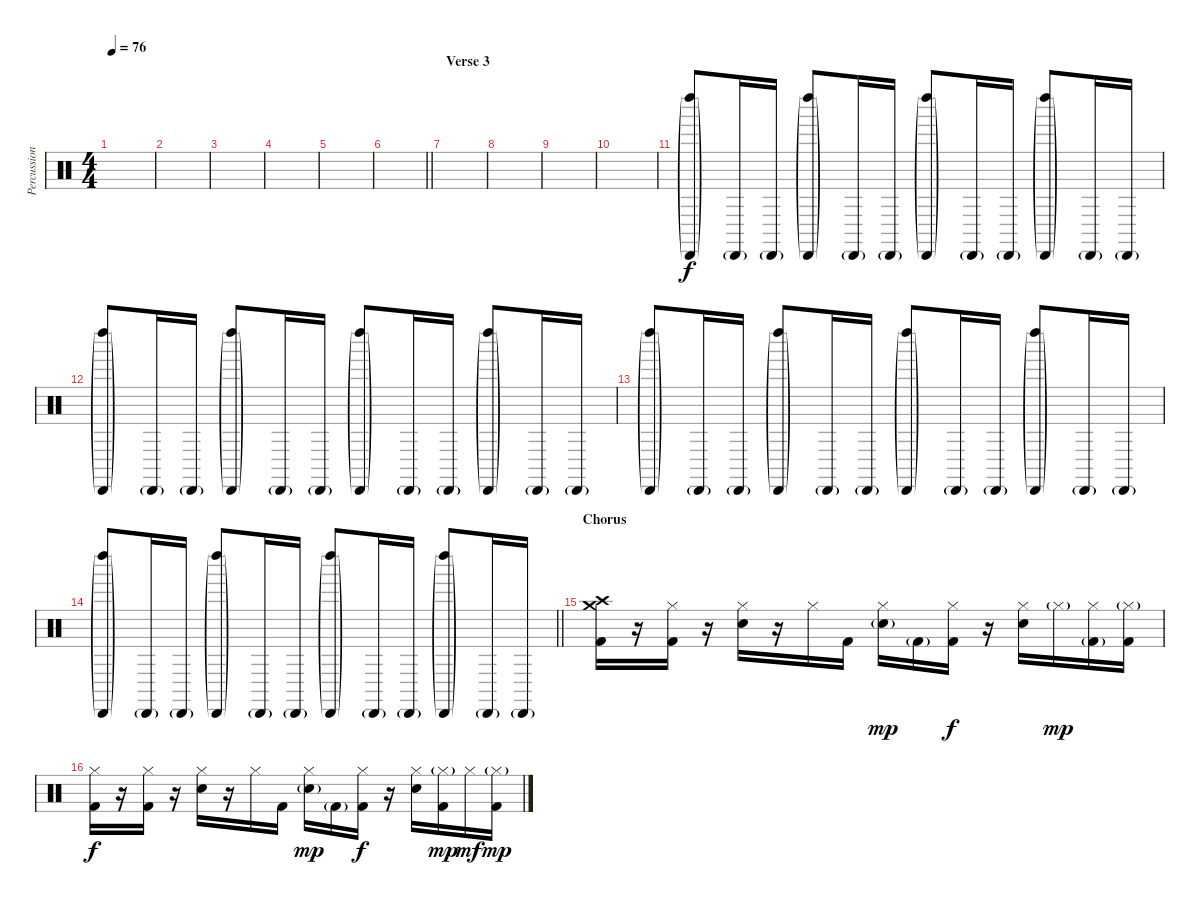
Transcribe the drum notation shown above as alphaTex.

\track ("Percussion" "Percussion") {instrument percussion}
\staff {score}
\articulation defaults
\ts (4 4)
\tempo 76
\clef neutral
\ks c
|
|
|
|
|
\barLineRight lightlight
|
\section ("" "Verse 3")
|
|
|
|
("Left Maraca (hit)"{g} "Cabasa (hit)"{g}).8 "Cabasa (hit)"{g}.16 "Cabasa (hit)"{g}.16 ("Left Maraca (hit)"{g} "Cabasa (hit)"{g}).8 "Cabasa (hit)"{g}.16 "Cabasa (hit)"{g}.16 ("Left Maraca (hit)"{g} "Cabasa (hit)"{g}).8 "Cabasa (hit)"{g}.16 "Cabasa (hit)"{g}.16 ("Left Maraca (hit)"{g} "Cabasa (hit)"{g}).8 "Cabasa (hit)"{g}.16 "Cabasa (hit)"{g}.16 |
("Left Maraca (hit)"{g} "Cabasa (hit)"{g}).8 "Cabasa (hit)"{g}.16 "Cabasa (hit)"{g}.16 ("Left Maraca (hit)"{g} "Cabasa (hit)"{g}).8 "Cabasa (hit)"{g}.16 "Cabasa (hit)"{g}.16 ("Left Maraca (hit)"{g} "Cabasa (hit)"{g}).8 "Cabasa (hit)"{g}.16 "Cabasa (hit)"{g}.16 ("Left Maraca (hit)"{g} "Cabasa (hit)"{g}).8 "Cabasa (hit)"{g}.16 "Cabasa (hit)"{g}.16 |
("Left Maraca (hit)"{g} "Cabasa (hit)"{g}).8 "Cabasa (hit)"{g}.16 "Cabasa (hit)"{g}.16 ("Left Maraca (hit)"{g} "Cabasa (hit)"{g}).8 "Cabasa (hit)"{g}.16 "Cabasa (hit)"{g}.16 ("Left Maraca (hit)"{g} "Cabasa (hit)"{g}).8 "Cabasa (hit)"{g}.16 "Cabasa (hit)"{g}.16 ("Left Maraca (hit)"{g} "Cabasa (hit)"{g}).8 "Cabasa (hit)"{g}.16 "Cabasa (hit)"{g}.16 |
\barLineRight lightlight
("Left Maraca (hit)"{g} "Cabasa (hit)"{g}).8 "Cabasa (hit)"{g}.16 "Cabasa (hit)"{g}.16 ("Left Maraca (hit)"{g} "Cabasa (hit)"{g}).8 "Cabasa (hit)"{g}.16 "Cabasa (hit)"{g}.16 ("Left Maraca (hit)"{g} "Cabasa (hit)"{g}).8 "Cabasa (hit)"{g}.16 "Cabasa (hit)"{g}.16 ("Left Maraca (hit)"{g} "Cabasa (hit)"{g}).8 "Cabasa (hit)"{g}.16 "Cabasa (hit)"{g}.16 |
\section ("" "Chorus")
("Crash high (hit)" "Crash medium (hit)" "Kick (hit) 2").16{dy f} r.16 ("Hi-Hat (closed)" "Kick (hit) 2").16 r.16 ("Hi-Hat (closed)" "Electric Snare (hit)").16 r.16 "Hi-Hat (closed)".16 "Kick (hit) 2".16 ("Hi-Hat (closed)" "Electric Snare (hit)"{g}).16{dy mp} "Kick (hit) 2"{g}.16 ("Hi-Hat (closed)" "Kick (hit) 2").16{dy f} r.16 ("Hi-Hat (closed)" "Electric Snare (hit)").16 "Hi-Hat (closed)"{g}.16{dy mp} ("Hi-Hat (closed)" "Kick (hit) 2"{g}).16 ("Hi-Hat (closed)"{g} "Kick (hit) 2").16 |
("Hi-Hat (closed)" "Kick (hit) 2").16{dy f} r.16 ("Hi-Hat (closed)" "Kick (hit) 2").16 r.16 ("Hi-Hat (closed)" "Electric Snare (hit)").16 r.16 "Hi-Hat (closed)".16 "Kick (hit) 2".16 ("Hi-Hat (closed)" "Electric Snare (hit)"{g}).16{dy mp} "Kick (hit) 2"{g}.16 ("Hi-Hat (closed)" "Kick (hit) 2").16{dy f} r.16 ("Hi-Hat (closed)" "Electric Snare (hit)").16 ("Hi-Hat (closed)"{g} "Kick (hit) 2").16{dy mp} "Hi-Hat (closed)".16{dy mf} ("Hi-Hat (closed)"{g} "Kick (hit) 2").16{dy mp}
